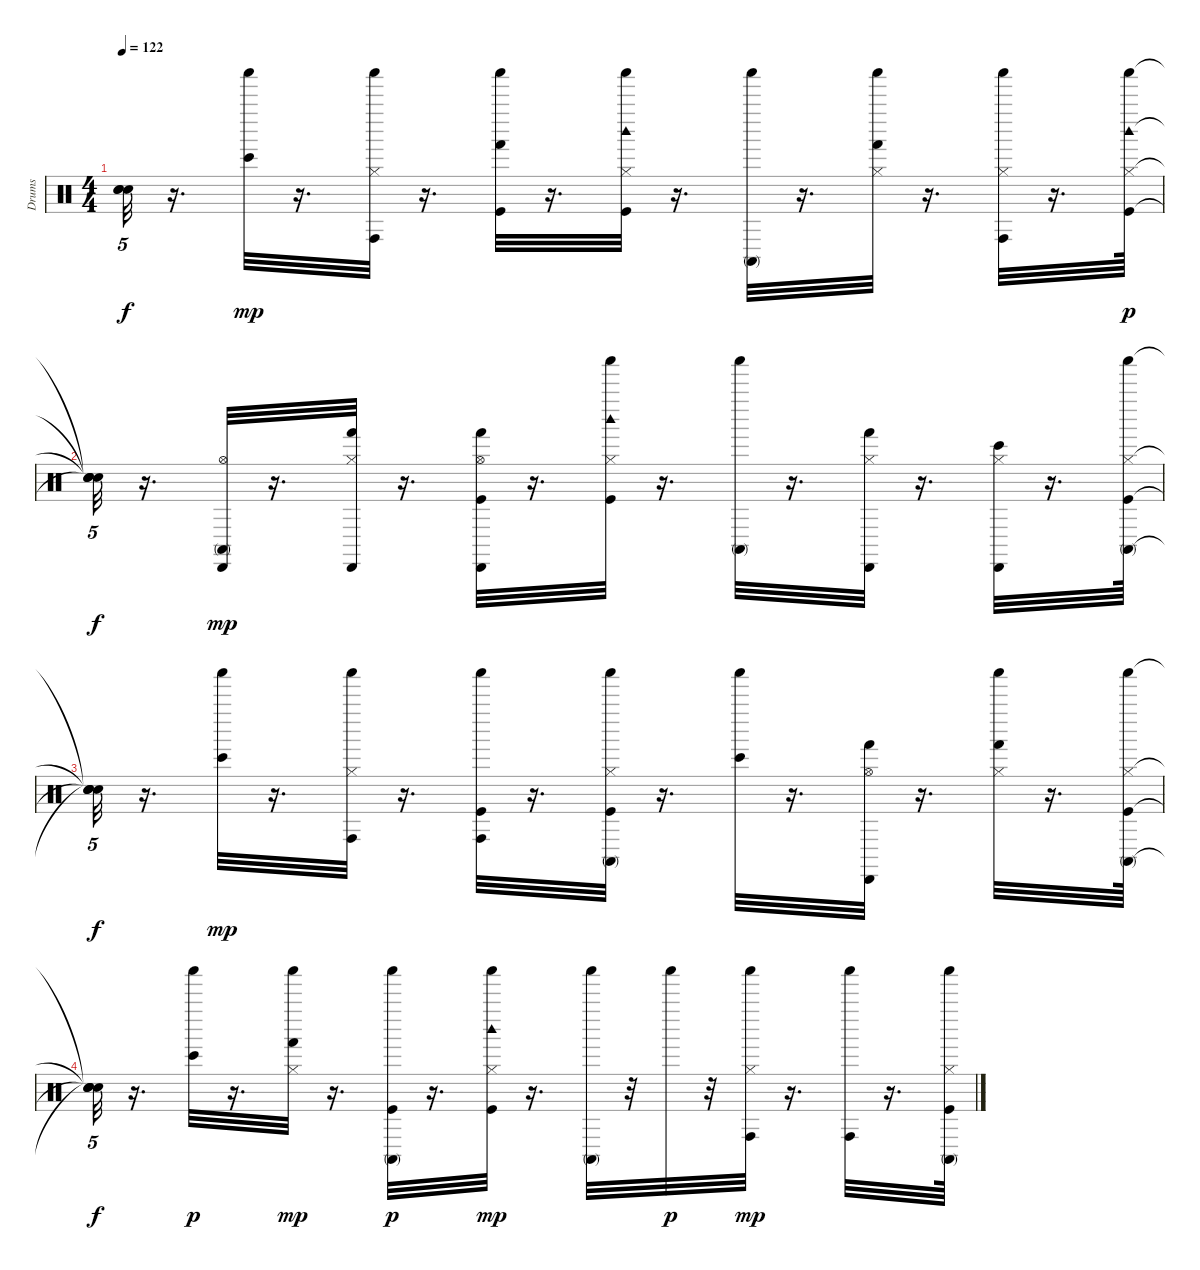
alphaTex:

\track ("Drums" "Drums") {instrument percussion}
\staff {score}
\articulation defaults
\ts (4 4)
\tempo 122
\clef neutral
\ks c
("Snare (hit)"{t} "Snare (hit)"{t} "Snare (hit)"{t}).32{tu (5 4) dy f} r.16{d} ("Bongo High (hit)" "Shaker (hit)").32{dy mp} r.16{d} ("Conga high (hit)" "Hi-Hat (closed)" "Shaker (hit)").32 r.16{d} ("Hand (hit)" "Kick (hit)" "Shaker (hit)").32 r.16{d} ("Woodblock high (hit)" "Kick (hit)" "Hi-Hat (closed)" "Shaker (hit)").32 r.16{d} ("Conga high (mute)" "Shaker (hit)").32 r.16{d} ("Hi-Hat (closed)" "Hand (hit)" "Shaker (hit)").32 r.16{d} ("Hi-Hat (closed)" "Conga high (hit)" "Shaker (hit)").32 r.16{d} ("Woodblock high (hit)" "Kick (hit)" "Hi-Hat (closed)" "Shaker (hit)").64{dy p} |
("Snare (hit)"{t} "Snare (hit)"{t} "Snare (hit)"{t} "Snare (hit)"{t}).32{tu (5 4) dy f} r.16{d} ("Conga high (mute)" "Hi-Hat (open)" "Cabasa (hit)").32{dy mp} r.16{d} ("Hand (hit)" "Hi-Hat (closed)" "Cabasa (hit)").32 r.16{d} ("Hand (hit)" "Kick (hit)" "Hi-Hat (open)" "Cabasa (hit)").32 r.16{d} ("Kick (hit)" "Hi-Hat (closed)" "Woodblock high (hit)" "Shaker (hit)").32 r.16{d} ("Conga high (mute)" "Shaker (hit)").32 r.16{d} ("Hi-Hat (closed)" "Hand (hit)" "Cabasa (hit)").32 r.16{d} ("Hi-Hat (closed)" "Bongo High (hit)" "Cabasa (hit)").32 r.16{d} ("Kick (hit)" "Hi-Hat (closed)" "Conga high (mute)" "Shaker (hit)").64 |
("Snare (hit)"{t} "Snare (hit)"{t} "Snare (hit)"{t} "Snare (hit)"{t}).32{tu (5 4) dy f} r.16{d} ("Bongo High (hit)" "Shaker (hit)").32{dy mp} r.16{d} ("Hi-Hat (closed)" "Conga high (hit)" "Shaker (hit)").32 r.16{d} ("Kick (hit)" "Conga high (hit)" "Shaker (hit)").32 r.16{d} ("Hi-Hat (closed)" "Kick (hit)" "Conga high (mute)" "Shaker (hit)").32 r.16{d} ("Bongo High (hit)" "Shaker (hit)").32 r.16{d} ("Hi-Hat (open)" "Hand (hit)" "Cabasa (hit)").32 r.16{d} ("Hi-Hat (closed)" "Hand (hit)" "Shaker (hit)").32 r.16{d} ("Kick (hit)" "Hi-Hat (closed)" "Conga high (mute)" "Shaker (hit)").64 |
("Snare (hit)"{t} "Snare (hit)"{t} "Snare (hit)"{t} "Snare (hit)"{t}).32{tu (5 4) dy f} r.16{d} ("Bongo High (hit)" "Shaker (hit)").32{dy p} r.16{d} ("Hi-Hat (closed)" "Hand (hit)" "Shaker (hit)").32{dy mp} r.16{d} ("Kick (hit)" "Conga high (mute)" "Shaker (hit)").32{dy p} r.16{d} ("Hi-Hat (closed)" "Kick (hit)" "Woodblock high (hit)" "Shaker (hit)").32{dy mp} r.16{d} ("Conga high (mute)" "Shaker (hit)").32 r.32 "Shaker (hit)".32{dy p} r.32 ("Hi-Hat (closed)" "Conga high (hit)" "Shaker (hit)").32{dy mp} r.16{d} ("Conga high (hit)" "Shaker (hit)").32 r.16{d} ("Kick (hit)" "Hi-Hat (closed)" "Conga high (mute)" "Shaker (hit)").64
